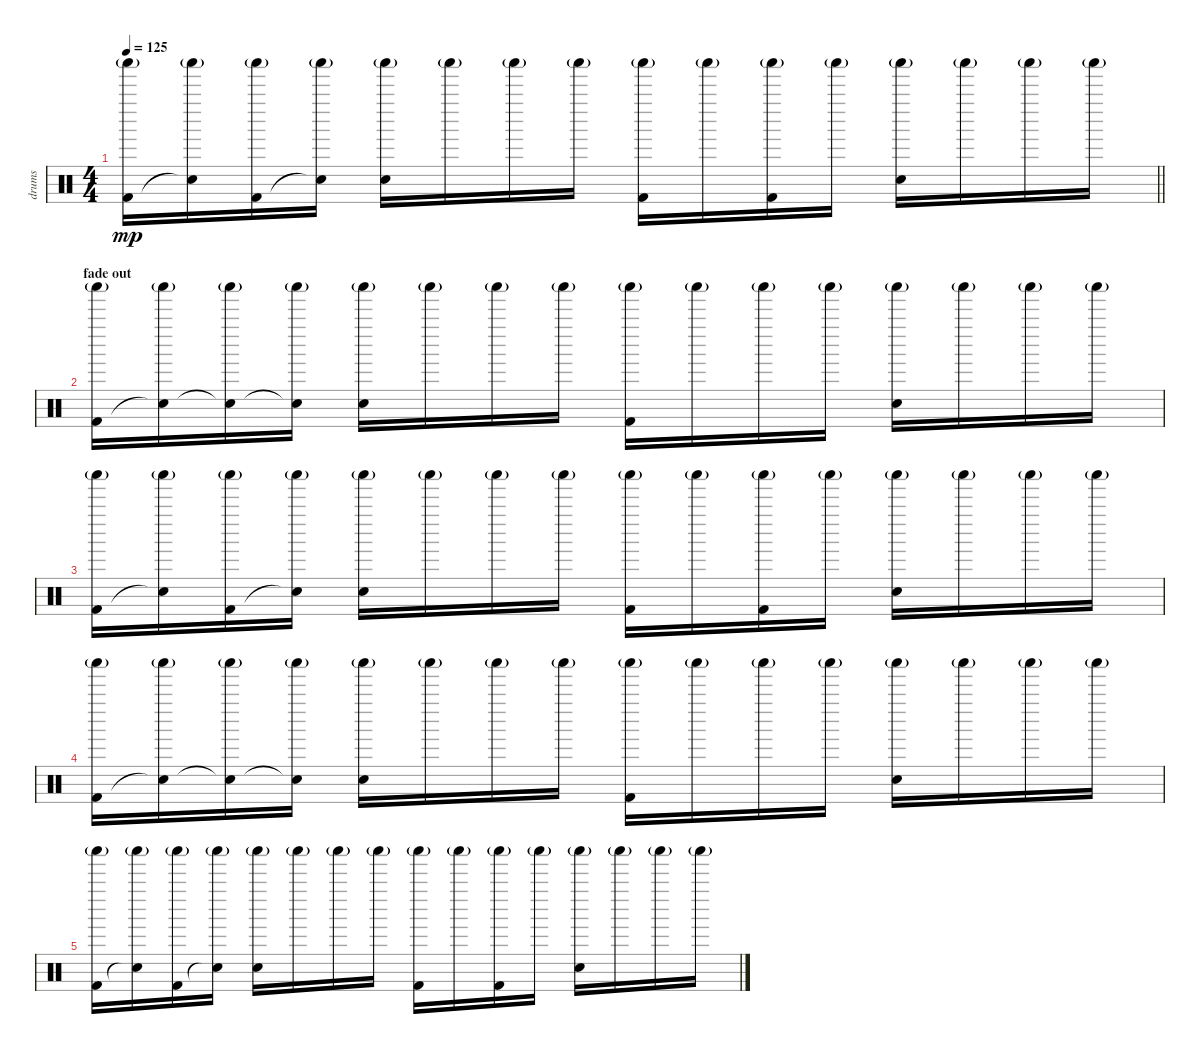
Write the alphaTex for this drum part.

\track ("drums" "drums") {instrument percussion}
\staff {score}
\articulation defaults
\ts (4 4)
\tempo 125
\clef neutral
\barLineRight lightlight
\ks c
("Shaker (hit)"{g} "Kick (hit) 2").16{dy mp} ("Shaker (hit)"{g} "Snare (hit)"{t}).16 ("Shaker (hit)"{g} "Kick (hit) 2").16 ("Shaker (hit)"{g} "Snare (hit)"{t}).16 ("Shaker (hit)"{g} "Snare (hit) 2").16 "Shaker (hit)"{g}.16 "Shaker (hit)"{g}.16 "Shaker (hit)"{g}.16 ("Shaker (hit)"{g} "Kick (hit) 2").16 "Shaker (hit)"{g}.16 ("Shaker (hit)"{g} "Kick (hit) 2").16 "Shaker (hit)"{g}.16 ("Shaker (hit)"{g} "Snare (hit) 2").16 "Shaker (hit)"{g}.16 "Shaker (hit)"{g}.16 "Shaker (hit)"{g}.16 |
\section ("" "fade out")
("Shaker (hit)"{g} "Kick (hit) 2").16 ("Shaker (hit)"{g} "Snare (hit)"{t}).16 ("Shaker (hit)"{g} "Snare (hit)"{t}).16 ("Shaker (hit)"{g} "Snare (hit)"{t}).16 ("Shaker (hit)"{g} "Snare (hit) 2").16 "Shaker (hit)"{g}.16 "Shaker (hit)"{g}.16 "Shaker (hit)"{g}.16 ("Shaker (hit)"{g} "Kick (hit) 2").16 "Shaker (hit)"{g}.16 "Shaker (hit)"{g}.16 "Shaker (hit)"{g}.16 ("Shaker (hit)"{g} "Snare (hit) 2").16 "Shaker (hit)"{g}.16 "Shaker (hit)"{g}.16 "Shaker (hit)"{g}.16 |
("Shaker (hit)"{g} "Kick (hit) 2").16 ("Shaker (hit)"{g} "Snare (hit)"{t}).16 ("Shaker (hit)"{g} "Kick (hit) 2").16 ("Shaker (hit)"{g} "Snare (hit)"{t}).16 ("Shaker (hit)"{g} "Snare (hit) 2").16 "Shaker (hit)"{g}.16 "Shaker (hit)"{g}.16 "Shaker (hit)"{g}.16 ("Shaker (hit)"{g} "Kick (hit) 2").16 "Shaker (hit)"{g}.16 ("Shaker (hit)"{g} "Kick (hit) 2").16 "Shaker (hit)"{g}.16 ("Shaker (hit)"{g} "Snare (hit) 2").16 "Shaker (hit)"{g}.16 "Shaker (hit)"{g}.16 "Shaker (hit)"{g}.16 |
("Shaker (hit)"{g} "Kick (hit) 2").16 ("Shaker (hit)"{g} "Snare (hit)"{t}).16 ("Shaker (hit)"{g} "Snare (hit)"{t}).16 ("Shaker (hit)"{g} "Snare (hit)"{t}).16 ("Shaker (hit)"{g} "Snare (hit) 2").16 "Shaker (hit)"{g}.16 "Shaker (hit)"{g}.16 "Shaker (hit)"{g}.16 ("Shaker (hit)"{g} "Kick (hit) 2").16 "Shaker (hit)"{g}.16 "Shaker (hit)"{g}.16 "Shaker (hit)"{g}.16 ("Shaker (hit)"{g} "Snare (hit) 2").16 "Shaker (hit)"{g}.16 "Shaker (hit)"{g}.16 "Shaker (hit)"{g}.16 |
("Shaker (hit)"{g} "Kick (hit) 2").16 ("Shaker (hit)"{g} "Snare (hit)"{t}).16 ("Shaker (hit)"{g} "Kick (hit) 2").16 ("Shaker (hit)"{g} "Snare (hit)"{t}).16 ("Shaker (hit)"{g} "Snare (hit) 2").16 "Shaker (hit)"{g}.16 "Shaker (hit)"{g}.16 "Shaker (hit)"{g}.16 ("Shaker (hit)"{g} "Kick (hit) 2").16 "Shaker (hit)"{g}.16 ("Shaker (hit)"{g} "Kick (hit) 2").16 "Shaker (hit)"{g}.16 ("Shaker (hit)"{g} "Snare (hit) 2").16 "Shaker (hit)"{g}.16 "Shaker (hit)"{g}.16 "Shaker (hit)"{g}.16
